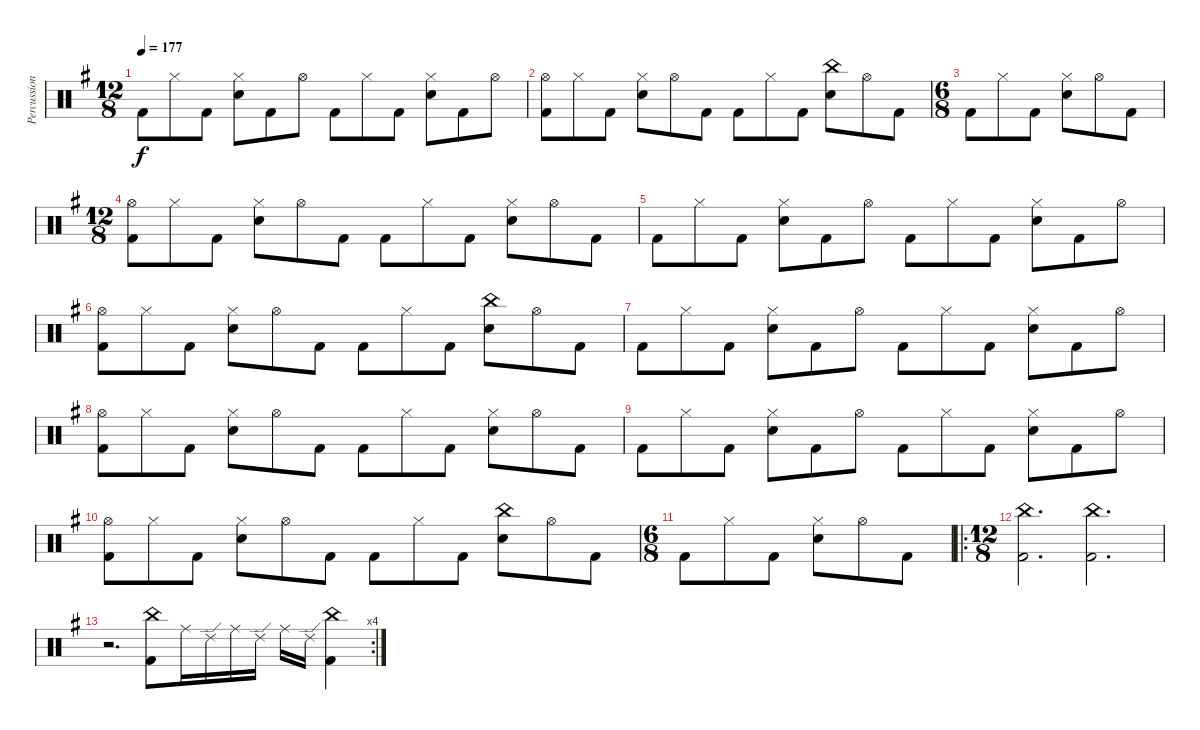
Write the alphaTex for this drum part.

\track ("Percussion" "Percussion") {instrument percussion}
\staff {score}
\articulation defaults
\ts (12 8)
\tempo 177
\clef neutral
\ks g "Kick (hit) 2".8{dy f} "Hi-Hat (closed)".8 "Kick (hit) 2".8
("Hi-Hat (closed)" "Snare (hit) 2").8 "Kick (hit) 2".8 "Hi-Hat (open)".8 "Kick (hit) 2".8 "Hi-Hat (closed)".8 "Kick (hit) 2".8 ("Hi-Hat (closed)" "Snare (hit) 2").8 "Kick (hit) 2".8 "Hi-Hat (open)".8 |
("Hi-Hat (open)" "Kick (hit) 2").8 "Hi-Hat (closed)".8 "Kick (hit) 2".8 ("Hi-Hat (closed)" "Snare (hit) 2").8 "Hi-Hat (open)".8 "Kick (hit) 2".8 "Kick (hit) 2".8 "Hi-Hat (closed)".8 "Kick (hit) 2".8 ("China (hit)" "Snare (hit) 2").8 "Hi-Hat (open)".8 "Kick (hit) 2".8 |
\ts (6 8)
"Kick (hit) 2".8 "Hi-Hat (closed)".8 "Kick (hit) 2".8 ("Hi-Hat (closed)" "Snare (hit) 2").8 "Hi-Hat (open)".8 "Kick (hit) 2".8 |
\ts (12 8)
("Hi-Hat (open)" "Kick (hit) 2").8 "Hi-Hat (closed)".8 "Kick (hit) 2".8 ("Hi-Hat (closed)" "Snare (hit) 2").8 "Hi-Hat (open)".8 "Kick (hit) 2".8 "Kick (hit) 2".8 "Hi-Hat (closed)".8 "Kick (hit) 2".8 ("Hi-Hat (closed)" "Snare (hit) 2").8 "Hi-Hat (open)".8 "Kick (hit) 2".8 |
"Kick (hit) 2".8 "Hi-Hat (closed)".8 "Kick (hit) 2".8 ("Hi-Hat (closed)" "Snare (hit) 2").8 "Kick (hit) 2".8 "Hi-Hat (open)".8 "Kick (hit) 2".8 "Hi-Hat (closed)".8 "Kick (hit) 2".8 ("Hi-Hat (closed)" "Snare (hit) 2").8 "Kick (hit) 2".8 "Hi-Hat (open)".8 |
("Hi-Hat (open)" "Kick (hit) 2").8 "Hi-Hat (closed)".8 "Kick (hit) 2".8 ("Hi-Hat (closed)" "Snare (hit) 2").8 "Hi-Hat (open)".8 "Kick (hit) 2".8 "Kick (hit) 2".8 "Hi-Hat (closed)".8 "Kick (hit) 2".8 ("China (hit)" "Snare (hit) 2").8 "Hi-Hat (open)".8 "Kick (hit) 2".8 |
"Kick (hit) 2".8 "Hi-Hat (closed)".8 "Kick (hit) 2".8 ("Hi-Hat (closed)" "Snare (hit) 2").8 "Kick (hit) 2".8 "Hi-Hat (open)".8 "Kick (hit) 2".8 "Hi-Hat (closed)".8 "Kick (hit) 2".8 ("Hi-Hat (closed)" "Snare (hit) 2").8 "Kick (hit) 2".8 "Hi-Hat (open)".8 |
("Hi-Hat (open)" "Kick (hit) 2").8 "Hi-Hat (closed)".8 "Kick (hit) 2".8 ("Hi-Hat (closed)" "Snare (hit) 2").8 "Hi-Hat (open)".8 "Kick (hit) 2".8 "Kick (hit) 2".8 "Hi-Hat (closed)".8 "Kick (hit) 2".8 ("Hi-Hat (closed)" "Snare (hit) 2").8 "Hi-Hat (open)".8 "Kick (hit) 2".8 |
"Kick (hit) 2".8 "Hi-Hat (closed)".8 "Kick (hit) 2".8 ("Hi-Hat (closed)" "Snare (hit) 2").8 "Kick (hit) 2".8 "Hi-Hat (open)".8 "Kick (hit) 2".8 "Hi-Hat (closed)".8 "Kick (hit) 2".8 ("Hi-Hat (closed)" "Snare (hit) 2").8 "Kick (hit) 2".8 "Hi-Hat (open)".8 |
("Hi-Hat (open)" "Kick (hit) 2").8 "Hi-Hat (closed)".8 "Kick (hit) 2".8 ("Hi-Hat (closed)" "Snare (hit) 2").8 "Hi-Hat (open)".8 "Kick (hit) 2".8 "Kick (hit) 2".8 "Hi-Hat (closed)".8 "Kick (hit) 2".8 ("China (hit)" "Snare (hit) 2").8 "Hi-Hat (open)".8 "Kick (hit) 2".8 |
\ts (6 8)
"Kick (hit) 2".8 "Hi-Hat (closed)".8 "Kick (hit) 2".8 ("Hi-Hat (closed)" "Snare (hit) 2").8 "Hi-Hat (open)".8 "Kick (hit) 2".8 |
\ro
\ts (12 8)
("China (hit)" "Kick (hit) 2").2{d} ("China (hit)" "Kick (hit) 2").2{d} |
\rc 4
r.2{d} ("China (hit)" "Kick (hit) 2").8 "Ride (middle)".16 "Ride (edge) 2".16 "Ride (middle)".16 "Ride (edge) 2".16 "Ride (middle)".16 "Ride (edge) 2".16 ("China (hit)" "Kick (hit) 2").4
